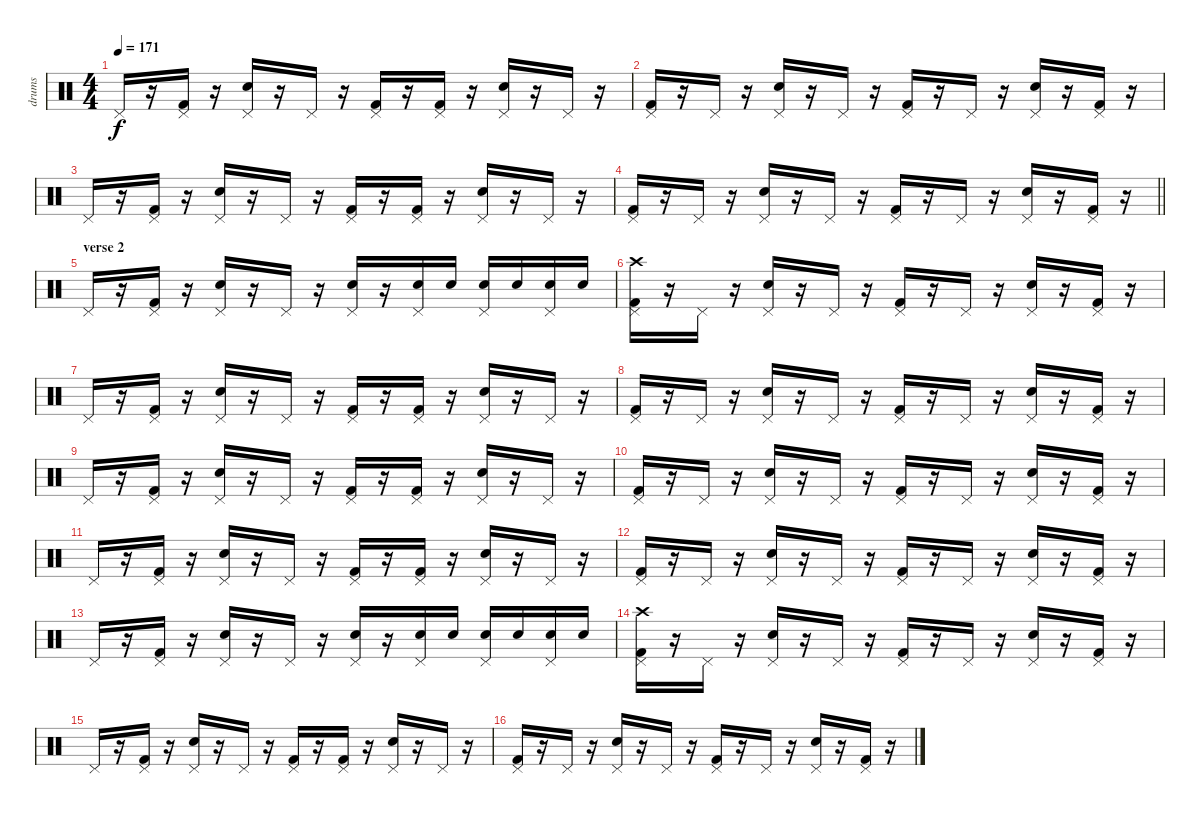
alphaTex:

\track ("drums" "drums") {instrument percussion}
\staff {score}
\articulation defaults
\ts (4 4)
\tempo 171
\clef neutral
\ks c "Pedal Hi-Hat (hit)".16{dy f}
r.16 ("Pedal Hi-Hat (hit)" "Kick (hit) 2").16 r.16 ("Pedal Hi-Hat (hit)" "Electric Snare (hit)").16 r.16 "Pedal Hi-Hat (hit)".16 r.16 ("Pedal Hi-Hat (hit)" "Kick (hit) 2").16 r.16 ("Pedal Hi-Hat (hit)" "Kick (hit) 2").16 r.16 ("Pedal Hi-Hat (hit)" "Electric Snare (hit)").16 r.16 "Pedal Hi-Hat (hit)".16 r.16 |
("Pedal Hi-Hat (hit)" "Kick (hit) 2").16 r.16 "Pedal Hi-Hat (hit)".16 r.16 ("Pedal Hi-Hat (hit)" "Electric Snare (hit)").16 r.16 "Pedal Hi-Hat (hit)".16 r.16 ("Pedal Hi-Hat (hit)" "Kick (hit) 2").16 r.16 "Pedal Hi-Hat (hit)".16 r.16 ("Pedal Hi-Hat (hit)" "Electric Snare (hit)").16 r.16 ("Pedal Hi-Hat (hit)" "Kick (hit) 2").16 r.16 |
"Pedal Hi-Hat (hit)".16 r.16 ("Pedal Hi-Hat (hit)" "Kick (hit) 2").16 r.16 ("Pedal Hi-Hat (hit)" "Electric Snare (hit)").16 r.16 "Pedal Hi-Hat (hit)".16 r.16 ("Pedal Hi-Hat (hit)" "Kick (hit) 2").16 r.16 ("Pedal Hi-Hat (hit)" "Kick (hit) 2").16 r.16 ("Pedal Hi-Hat (hit)" "Electric Snare (hit)").16 r.16 "Pedal Hi-Hat (hit)".16 r.16 |
\barLineRight lightlight
("Pedal Hi-Hat (hit)" "Kick (hit) 2").16 r.16 "Pedal Hi-Hat (hit)".16 r.16 ("Pedal Hi-Hat (hit)" "Electric Snare (hit)").16 r.16 "Pedal Hi-Hat (hit)".16 r.16 ("Pedal Hi-Hat (hit)" "Kick (hit) 2").16 r.16 "Pedal Hi-Hat (hit)".16 r.16 ("Pedal Hi-Hat (hit)" "Electric Snare (hit)").16 r.16 ("Pedal Hi-Hat (hit)" "Kick (hit) 2").16 r.16 |
\section ("" "verse 2")
"Pedal Hi-Hat (hit)".16 r.16 ("Pedal Hi-Hat (hit)" "Kick (hit) 2").16 r.16 ("Pedal Hi-Hat (hit)" "Electric Snare (hit)").16 r.16 "Pedal Hi-Hat (hit)".16 r.16 ("Pedal Hi-Hat (hit)" "Electric Snare (hit)").16 r.16 ("Pedal Hi-Hat (hit)" "Electric Snare (hit)").16 "Electric Snare (hit)".16 ("Pedal Hi-Hat (hit)" "Electric Snare (hit)").16 "Electric Snare (hit)".16 ("Pedal Hi-Hat (hit)" "Electric Snare (hit)").16 "Electric Snare (hit)".16 |
("Pedal Hi-Hat (hit)" "Crash high (hit)" "Kick (hit) 2").16 r.16 "Pedal Hi-Hat (hit)".16 r.16 ("Pedal Hi-Hat (hit)" "Electric Snare (hit)").16 r.16 "Pedal Hi-Hat (hit)".16 r.16 ("Pedal Hi-Hat (hit)" "Kick (hit) 2").16 r.16 "Pedal Hi-Hat (hit)".16 r.16 ("Pedal Hi-Hat (hit)" "Electric Snare (hit)").16 r.16 ("Pedal Hi-Hat (hit)" "Kick (hit) 2").16 r.16 |
"Pedal Hi-Hat (hit)".16 r.16 ("Pedal Hi-Hat (hit)" "Kick (hit) 2").16 r.16 ("Pedal Hi-Hat (hit)" "Electric Snare (hit)").16 r.16 "Pedal Hi-Hat (hit)".16 r.16 ("Pedal Hi-Hat (hit)" "Kick (hit) 2").16 r.16 ("Pedal Hi-Hat (hit)" "Kick (hit) 2").16 r.16 ("Pedal Hi-Hat (hit)" "Electric Snare (hit)").16 r.16 "Pedal Hi-Hat (hit)".16 r.16 |
("Pedal Hi-Hat (hit)" "Kick (hit) 2").16 r.16 "Pedal Hi-Hat (hit)".16 r.16 ("Pedal Hi-Hat (hit)" "Electric Snare (hit)").16 r.16 "Pedal Hi-Hat (hit)".16 r.16 ("Pedal Hi-Hat (hit)" "Kick (hit) 2").16 r.16 "Pedal Hi-Hat (hit)".16 r.16 ("Pedal Hi-Hat (hit)" "Electric Snare (hit)").16 r.16 ("Pedal Hi-Hat (hit)" "Kick (hit) 2").16 r.16 |
"Pedal Hi-Hat (hit)".16 r.16 ("Pedal Hi-Hat (hit)" "Kick (hit) 2").16 r.16 ("Pedal Hi-Hat (hit)" "Electric Snare (hit)").16 r.16 "Pedal Hi-Hat (hit)".16 r.16 ("Pedal Hi-Hat (hit)" "Kick (hit) 2").16 r.16 ("Pedal Hi-Hat (hit)" "Kick (hit) 2").16 r.16 ("Pedal Hi-Hat (hit)" "Electric Snare (hit)").16 r.16 "Pedal Hi-Hat (hit)".16 r.16 |
("Pedal Hi-Hat (hit)" "Kick (hit) 2").16 r.16 "Pedal Hi-Hat (hit)".16 r.16 ("Pedal Hi-Hat (hit)" "Electric Snare (hit)").16 r.16 "Pedal Hi-Hat (hit)".16 r.16 ("Pedal Hi-Hat (hit)" "Kick (hit) 2").16 r.16 "Pedal Hi-Hat (hit)".16 r.16 ("Pedal Hi-Hat (hit)" "Electric Snare (hit)").16 r.16 ("Pedal Hi-Hat (hit)" "Kick (hit) 2").16 r.16 |
"Pedal Hi-Hat (hit)".16 r.16 ("Pedal Hi-Hat (hit)" "Kick (hit) 2").16 r.16 ("Pedal Hi-Hat (hit)" "Electric Snare (hit)").16 r.16 "Pedal Hi-Hat (hit)".16 r.16 ("Pedal Hi-Hat (hit)" "Kick (hit) 2").16 r.16 ("Pedal Hi-Hat (hit)" "Kick (hit) 2").16 r.16 ("Pedal Hi-Hat (hit)" "Electric Snare (hit)").16 r.16 "Pedal Hi-Hat (hit)".16 r.16 |
("Pedal Hi-Hat (hit)" "Kick (hit) 2").16 r.16 "Pedal Hi-Hat (hit)".16 r.16 ("Pedal Hi-Hat (hit)" "Electric Snare (hit)").16 r.16 "Pedal Hi-Hat (hit)".16 r.16 ("Pedal Hi-Hat (hit)" "Kick (hit) 2").16 r.16 "Pedal Hi-Hat (hit)".16 r.16 ("Pedal Hi-Hat (hit)" "Electric Snare (hit)").16 r.16 ("Pedal Hi-Hat (hit)" "Kick (hit) 2").16 r.16 |
"Pedal Hi-Hat (hit)".16 r.16 ("Pedal Hi-Hat (hit)" "Kick (hit) 2").16 r.16 ("Pedal Hi-Hat (hit)" "Electric Snare (hit)").16 r.16 "Pedal Hi-Hat (hit)".16 r.16 ("Pedal Hi-Hat (hit)" "Electric Snare (hit)").16 r.16 ("Pedal Hi-Hat (hit)" "Electric Snare (hit)").16 "Electric Snare (hit)".16 ("Pedal Hi-Hat (hit)" "Electric Snare (hit)").16 "Electric Snare (hit)".16 ("Pedal Hi-Hat (hit)" "Electric Snare (hit)").16 "Electric Snare (hit)".16 |
("Pedal Hi-Hat (hit)" "Crash high (hit)" "Kick (hit) 2").16 r.16 "Pedal Hi-Hat (hit)".16 r.16 ("Pedal Hi-Hat (hit)" "Electric Snare (hit)").16 r.16 "Pedal Hi-Hat (hit)".16 r.16 ("Pedal Hi-Hat (hit)" "Kick (hit) 2").16 r.16 "Pedal Hi-Hat (hit)".16 r.16 ("Pedal Hi-Hat (hit)" "Electric Snare (hit)").16 r.16 ("Pedal Hi-Hat (hit)" "Kick (hit) 2").16 r.16 |
"Pedal Hi-Hat (hit)".16 r.16 ("Pedal Hi-Hat (hit)" "Kick (hit) 2").16 r.16 ("Pedal Hi-Hat (hit)" "Electric Snare (hit)").16 r.16 "Pedal Hi-Hat (hit)".16 r.16 ("Pedal Hi-Hat (hit)" "Kick (hit) 2").16 r.16 ("Pedal Hi-Hat (hit)" "Kick (hit) 2").16 r.16 ("Pedal Hi-Hat (hit)" "Electric Snare (hit)").16 r.16 "Pedal Hi-Hat (hit)".16 r.16 |
("Pedal Hi-Hat (hit)" "Kick (hit) 2").16 r.16 "Pedal Hi-Hat (hit)".16 r.16 ("Pedal Hi-Hat (hit)" "Electric Snare (hit)").16 r.16 "Pedal Hi-Hat (hit)".16 r.16 ("Pedal Hi-Hat (hit)" "Kick (hit) 2").16 r.16 "Pedal Hi-Hat (hit)".16 r.16 ("Pedal Hi-Hat (hit)" "Electric Snare (hit)").16 r.16 ("Pedal Hi-Hat (hit)" "Kick (hit) 2").16 r.16
